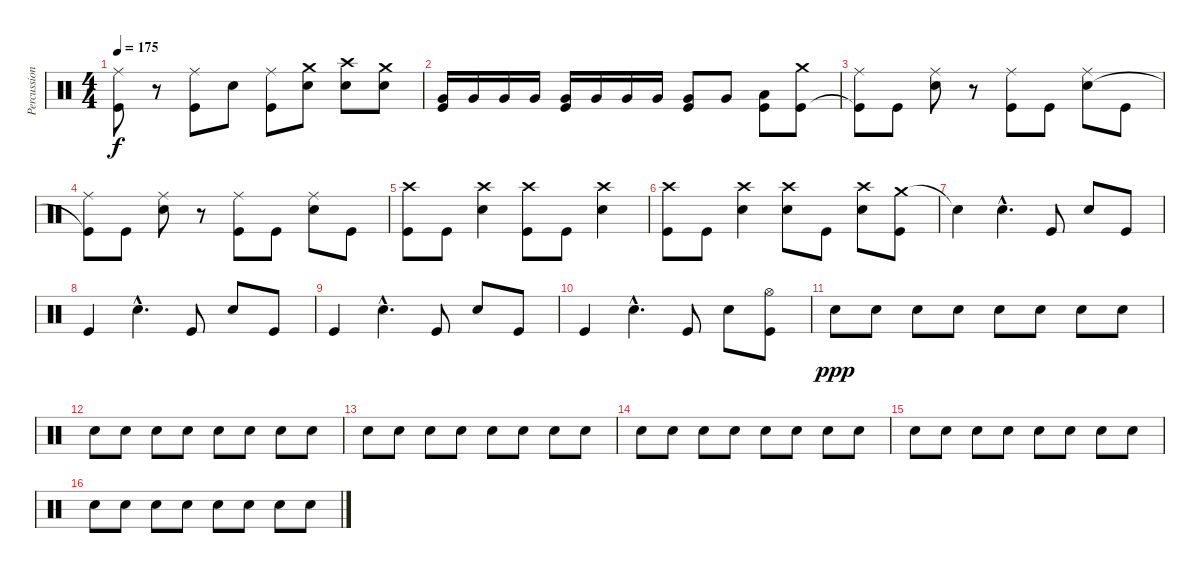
\track ("Percussion" "Percussion") {instrument percussion}
\staff {score}
\articulation defaults
\ts (4 4)
\tempo 175
\clef neutral
\ks c
("Ride (middle)" "Kick (hit)").8{dy f} r.8 ("Ride (middle)" "Kick (hit)").8 "Snare (hit) 2".8 ("Ride (middle)" "Kick (hit)").8 ("Crash medium (hit)" "Snare (hit) 2").8 ("Crash high (hit)" "Snare (hit) 2").8 ("Crash medium (hit)" "Snare (hit) 2").8 |
("Very Low Tom (hit)" "Kick (hit)").16 "Very Low Tom (hit)".16 "Very Low Tom (hit)".16 "Very Low Tom (hit)".16 ("Very Low Tom (hit)" "Kick (hit)").16 "Very Low Tom (hit)".16 "Very Low Tom (hit)".16 "Very Low Tom (hit)".16 ("Very Low Tom (hit)" "Kick (hit)").8 "Very Low Tom (hit)".8 ("Low Floor Tom (hit)" "Kick (hit)").8 ("Crash medium (hit)" "Kick (hit)").8 |
("Ride (middle)" "Kick (hit)"{t}).8 "Kick (hit)".8 ("Ride (middle)" "Snare (hit) 2").8 r.8 ("Ride (middle)" "Kick (hit)").8 "Kick (hit)".8 ("Ride (middle)" "Snare (hit) 2").8 "Kick (hit)".8 |
("Ride (middle)" "Kick (hit)"{t}).8 "Kick (hit)".8 ("Ride (middle)" "Snare (hit) 2").8 r.8 ("Ride (middle)" "Kick (hit)").8 "Kick (hit)".8 ("Ride (middle)" "Snare (hit) 2").8 "Kick (hit)".8 |
("Crash high (hit)" "Kick (hit)").8 "Kick (hit)".8 ("Crash high (hit)" "Snare (hit) 2").4 ("Crash high (hit)" "Kick (hit)").8 "Kick (hit)".8 ("Crash high (hit)" "Snare (hit) 2").4 |
("Crash high (hit)" "Kick (hit)").8 "Kick (hit)".8 ("Crash high (hit)" "Snare (hit) 2").4 ("Crash high (hit)" "Snare (hit) 2").8 "Kick (hit)".8 ("Crash high (hit)" "Snare (hit) 2").8 ("Crash medium (hit)" "Kick (hit)").8 |
"Snare (hit)"{t}.4 "Snare (hit) 2"{hac}.4{d} "Kick (hit)".8 "Snare (hit) 2".8 "Kick (hit)".8 |
"Kick (hit)".4 "Snare (hit) 2"{hac}.4{d} "Kick (hit)".8 "Snare (hit) 2".8 "Kick (hit)".8 |
"Kick (hit)".4 "Snare (hit) 2"{hac}.4{d} "Kick (hit)".8 "Snare (hit) 2".8 "Kick (hit)".8 |
"Kick (hit)".4 "Snare (hit) 2"{hac}.4{d} "Kick (hit)".8 "Snare (hit) 2".8 ("Hi-Hat (open)" "Kick (hit)").8 |
"Snare (hit) 2".8{dy ppp} "Snare (hit) 2".8 "Snare (hit) 2".8 "Snare (hit) 2".8 "Snare (hit) 2".8 "Snare (hit) 2".8 "Snare (hit) 2".8 "Snare (hit) 2".8 |
"Snare (hit) 2".8 "Snare (hit) 2".8 "Snare (hit) 2".8 "Snare (hit) 2".8 "Snare (hit) 2".8 "Snare (hit) 2".8 "Snare (hit) 2".8 "Snare (hit) 2".8 |
"Snare (hit) 2".8 "Snare (hit) 2".8 "Snare (hit) 2".8 "Snare (hit) 2".8 "Snare (hit) 2".8 "Snare (hit) 2".8 "Snare (hit) 2".8 "Snare (hit) 2".8 |
"Snare (hit) 2".8 "Snare (hit) 2".8 "Snare (hit) 2".8 "Snare (hit) 2".8 "Snare (hit) 2".8 "Snare (hit) 2".8 "Snare (hit) 2".8 "Snare (hit) 2".8 |
"Snare (hit) 2".8 "Snare (hit) 2".8 "Snare (hit) 2".8 "Snare (hit) 2".8 "Snare (hit) 2".8 "Snare (hit) 2".8 "Snare (hit) 2".8 "Snare (hit) 2".8 |
"Snare (hit) 2".8 "Snare (hit) 2".8 "Snare (hit) 2".8 "Snare (hit) 2".8 "Snare (hit) 2".8 "Snare (hit) 2".8 "Snare (hit) 2".8 "Snare (hit) 2".8
